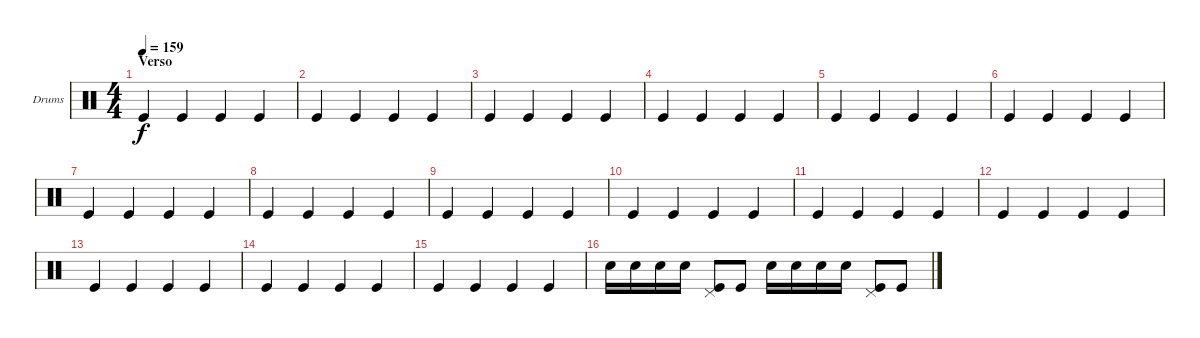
\bracketExtendMode groupsimilarinstruments
\firstSystemTrackNameOrientation horizontal
\otherSystemsTrackNameOrientation horizontal
\track ("Drumkit" "Drums") {instrument percussion}
\staff {score}
\articulation defaults
\ts (4 4)
\section ("" "Verso")
\tempo 159
\clef neutral
\scale
0.333333
\ks c "Kick (hit)".4{dy f} "Kick (hit)".4 "Kick (hit)".4 "Kick (hit)".4
|
\scale
0.333333 "Kick (hit)".4 "Kick (hit)".4 "Kick (hit)".4 "Kick (hit)".4 |
\scale
0.333333 "Kick (hit)".4 "Kick (hit)".4 "Kick (hit)".4 "Kick (hit)".4 |
\scale
0.333333 "Kick (hit)".4 "Kick (hit)".4 "Kick (hit)".4 "Kick (hit)".4 |
\scale
0.333333 "Kick (hit)".4 "Kick (hit)".4 "Kick (hit)".4 "Kick (hit)".4 |
\scale
0.333333 "Kick (hit)".4 "Kick (hit)".4 "Kick (hit)".4 "Kick (hit)".4 |
\scale
0.333333 "Kick (hit)".4 "Kick (hit)".4 "Kick (hit)".4 "Kick (hit)".4 |
\scale
0.333333 "Kick (hit)".4 "Kick (hit)".4 "Kick (hit)".4 "Kick (hit)".4 |
\scale
0.333333 "Kick (hit)".4 "Kick (hit)".4 "Kick (hit)".4 "Kick (hit)".4 |
\scale
0.333333 "Kick (hit)".4 "Kick (hit)".4 "Kick (hit)".4 "Kick (hit)".4 |
\scale
0.333333 "Kick (hit)".4 "Kick (hit)".4 "Kick (hit)".4 "Kick (hit)".4 |
\scale
0.333333 "Kick (hit)".4 "Kick (hit)".4 "Kick (hit)".4 "Kick (hit)".4 |
\scale
0.333333 "Kick (hit)".4 "Kick (hit)".4 "Kick (hit)".4 "Kick (hit)".4 |
\scale
0.333333 "Kick (hit)".4 "Kick (hit)".4 "Kick (hit)".4 "Kick (hit)".4 |
\scale
0.333333 "Kick (hit)".4 "Kick (hit)".4 "Kick (hit)".4 "Kick (hit)".4 |
\scale
0.333333 "Snare (hit) 2".16 "Snare (hit) 2".16 "Snare (hit) 2".16 "Snare (hit) 2".16 ("Kick (hit)" "Pedal Hi-Hat (hit)").8 "Kick (hit)".8 "Snare (hit) 2".16 "Snare (hit) 2".16 "Snare (hit) 2".16 "Snare (hit) 2".16 ("Kick (hit)" "Pedal Hi-Hat (hit)").8 "Kick (hit)".8
